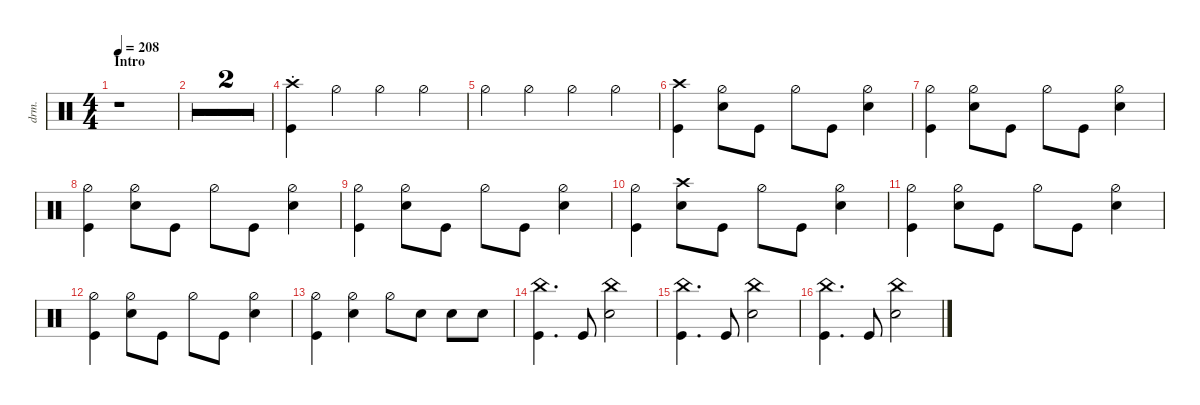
\defaultSystemsLayout 4
\hideDynamics
\bracketExtendMode nobrackets
\otherSystemsTrackNameOrientation horizontal
\track ("Drums" "drm.") {multiBarRest instrument percussion}
\staff
\articulation defaults
\ts (4 4)
\section ("" "Intro")
\tempo 208
\clef neutral
\ks c
r.1{dy f} |
r.1 |
r.1 |
("Kick (hit)" "Crash high (hit)"{st}).4 "Hi-Hat (half)".4 "Hi-Hat (half)".4 "Hi-Hat (half)".4 |
"Hi-Hat (half)".4 "Hi-Hat (half)".4 "Hi-Hat (half)".4 "Hi-Hat (half)".4 |
("Crash high (hit)" "Kick (hit)").4 ("Snare (hit) 2" "Hi-Hat (half)").8 "Kick (hit)".8 "Hi-Hat (half)".8 "Kick (hit)".8 ("Snare (hit) 2" "Hi-Hat (half)").4 |
("Kick (hit)" "Hi-Hat (half)").4 ("Snare (hit) 2" "Hi-Hat (half)").8 "Kick (hit)".8 "Hi-Hat (half)".8 "Kick (hit)".8 ("Snare (hit) 2" "Hi-Hat (half)").4 |
("Kick (hit)" "Hi-Hat (half)").4 ("Snare (hit) 2" "Hi-Hat (half)").8 "Kick (hit)".8 "Hi-Hat (half)".8 "Kick (hit)".8 ("Snare (hit) 2" "Hi-Hat (half)").4 |
("Kick (hit)" "Hi-Hat (half)").4 ("Snare (hit) 2" "Hi-Hat (half)").8 "Kick (hit)".8 "Hi-Hat (half)".8 "Kick (hit)".8 ("Snare (hit) 2" "Hi-Hat (half)").4 |
("Kick (hit)" "Hi-Hat (half)").4 ("Snare (hit) 2" "Crash high (hit)").8 "Kick (hit)".8 "Hi-Hat (half)".8 "Kick (hit)".8 ("Snare (hit) 2" "Hi-Hat (half)").4 |
("Kick (hit)" "Hi-Hat (half)").4 ("Snare (hit) 2" "Hi-Hat (half)").8 "Kick (hit)".8 "Hi-Hat (half)".8 "Kick (hit)".8 ("Snare (hit) 2" "Hi-Hat (half)").4 |
("Kick (hit)" "Hi-Hat (half)").4 ("Snare (hit) 2" "Hi-Hat (half)").8 "Kick (hit)".8 "Hi-Hat (half)".8 "Kick (hit)".8 ("Snare (hit) 2" "Hi-Hat (half)").4 |
("Kick (hit)" "Hi-Hat (half)").4 ("Snare (hit) 2" "Hi-Hat (half)").4 "Hi-Hat (half)".8 "Snare (hit) 2".8 "Snare (hit) 2".8 "Snare (hit) 2".8 |
("China (hit)" "Kick (hit)").4{d} "Kick (hit)".8 ("Snare (hit) 2" "China (hit)").2 |
("China (hit)" "Kick (hit)").4{d} "Kick (hit)".8 ("Snare (hit) 2" "China (hit)").2 |
("China (hit)" "Kick (hit)").4{d} "Kick (hit)".8 ("Snare (hit) 2" "China (hit)").2
